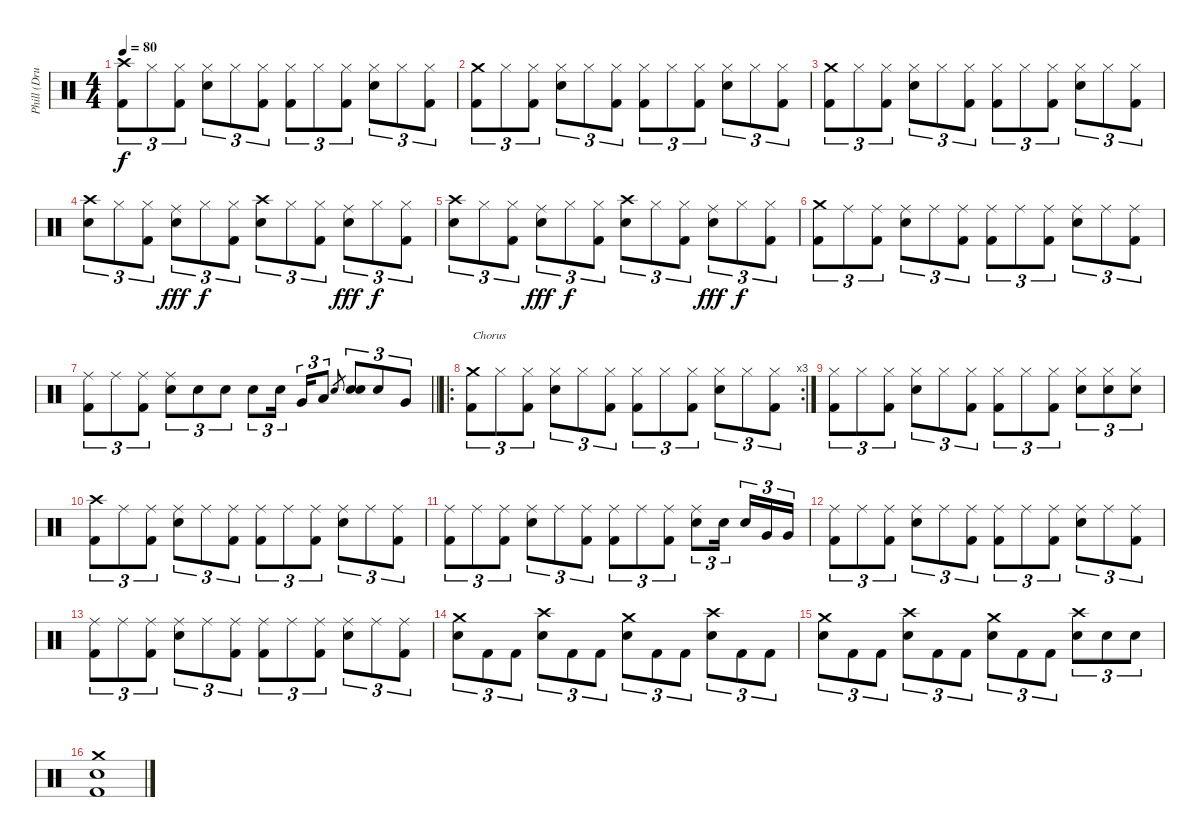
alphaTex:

\track ("Phill (Drums)" "Phill (Dru") {instrument percussion}
\staff {score}
\articulation defaults
\ts (4 4)
\tempo 80
\clef neutral
\ks c
("Kick (hit) 2" "Crash high (hit)").8{tu (3 2) dy f} "Hi-Hat (closed)".8{tu (3 2)} ("Kick (hit) 2" "Hi-Hat (closed)").8{tu (3 2)} ("Electric Snare (hit)" "Hi-Hat (closed)").8{tu (3 2)} "Hi-Hat (closed)".8{tu (3 2)} ("Kick (hit) 2" "Hi-Hat (closed)").8{tu (3 2)} ("Kick (hit) 2" "Hi-Hat (closed)").8{tu (3 2)} "Hi-Hat (closed)".8{tu (3 2)} ("Kick (hit) 2" "Hi-Hat (closed)").8{tu (3 2)} ("Electric Snare (hit)" "Hi-Hat (closed)").8{tu (3 2)} "Hi-Hat (closed)".8{tu (3 2)} ("Kick (hit) 2" "Hi-Hat (closed)").8{tu (3 2)} |
("Kick (hit) 2" "Crash medium (hit)").8{tu (3 2)} "Hi-Hat (closed)".8{tu (3 2)} ("Kick (hit) 2" "Hi-Hat (closed)").8{tu (3 2)} ("Electric Snare (hit)" "Hi-Hat (closed)").8{tu (3 2)} "Hi-Hat (closed)".8{tu (3 2)} ("Kick (hit) 2" "Hi-Hat (closed)").8{tu (3 2)} ("Kick (hit) 2" "Hi-Hat (closed)").8{tu (3 2)} "Hi-Hat (closed)".8{tu (3 2)} ("Kick (hit) 2" "Hi-Hat (closed)").8{tu (3 2)} ("Electric Snare (hit)" "Hi-Hat (closed)").8{tu (3 2)} "Hi-Hat (closed)".8{tu (3 2)} ("Kick (hit) 2" "Hi-Hat (closed)").8{tu (3 2)} |
("Kick (hit) 2" "Crash medium (hit)").8{tu (3 2)} "Hi-Hat (closed)".8{tu (3 2)} ("Kick (hit) 2" "Hi-Hat (closed)").8{tu (3 2)} ("Electric Snare (hit)" "Hi-Hat (closed)").8{tu (3 2)} "Hi-Hat (closed)".8{tu (3 2)} ("Kick (hit) 2" "Hi-Hat (closed)").8{tu (3 2)} ("Kick (hit) 2" "Hi-Hat (closed)").8{tu (3 2)} "Hi-Hat (closed)".8{tu (3 2)} ("Kick (hit) 2" "Hi-Hat (closed)").8{tu (3 2)} ("Electric Snare (hit)" "Hi-Hat (closed)").8{tu (3 2)} "Hi-Hat (closed)".8{tu (3 2)} ("Kick (hit) 2" "Hi-Hat (closed)").8{tu (3 2)} |
("Electric Snare (hit)" "Crash high (hit)").8{tu (3 2)} "Hi-Hat (closed)".8{tu (3 2)} ("Kick (hit) 2" "Hi-Hat (closed)").8{tu (3 2)} ("Electric Snare (hit)" "Ride (middle)").8{tu (3 2) dy fff} "Hi-Hat (closed)".8{tu (3 2) dy f} ("Kick (hit) 2" "Hi-Hat (closed)").8{tu (3 2)} ("Electric Snare (hit)" "Crash high (hit)").8{tu (3 2)} "Hi-Hat (closed)".8{tu (3 2)} ("Kick (hit) 2" "Hi-Hat (closed)").8{tu (3 2)} ("Electric Snare (hit)" "Ride (middle)").8{tu (3 2) dy fff} "Hi-Hat (closed)".8{tu (3 2) dy f} ("Kick (hit) 2" "Hi-Hat (closed)").8{tu (3 2)} |
("Electric Snare (hit)" "Crash high (hit)").8{tu (3 2)} "Hi-Hat (closed)".8{tu (3 2)} ("Kick (hit) 2" "Hi-Hat (closed)").8{tu (3 2)} ("Electric Snare (hit)" "Ride (middle)").8{tu (3 2) dy fff} "Hi-Hat (closed)".8{tu (3 2) dy f} ("Kick (hit) 2" "Hi-Hat (closed)").8{tu (3 2)} ("Electric Snare (hit)" "Crash high (hit)").8{tu (3 2)} "Hi-Hat (closed)".8{tu (3 2)} ("Kick (hit) 2" "Hi-Hat (closed)").8{tu (3 2)} ("Electric Snare (hit)" "Ride (middle)").8{tu (3 2) dy fff} "Hi-Hat (closed)".8{tu (3 2) dy f} ("Kick (hit) 2" "Hi-Hat (closed)").8{tu (3 2)} |
("Kick (hit) 2" "Crash medium (hit)").8{tu (3 2)} "Ride (middle)".8{tu (3 2)} ("Kick (hit) 2" "Ride (middle)").8{tu (3 2)} ("Electric Snare (hit)" "Ride (middle)").8{tu (3 2)} "Ride (middle)".8{tu (3 2)} ("Kick (hit) 2" "Ride (middle)").8{tu (3 2)} ("Kick (hit) 2" "Ride (middle)").8{tu (3 2)} "Ride (middle)".8{tu (3 2)} ("Kick (hit) 2" "Ride (middle)").8{tu (3 2)} ("Electric Snare (hit)" "Ride (middle)").8{tu (3 2)} "Ride (middle)".8{tu (3 2)} ("Kick (hit) 2" "Ride (middle)").8{tu (3 2)} |
\barLineRight lightlight
("Kick (hit) 2" "Ride (middle)").8{tu (3 2)} "Ride (middle)".8{tu (3 2)} ("Kick (hit) 2" "Ride (middle)").8{tu (3 2)} ("Electric Snare (hit)" "Ride (middle)").8{tu (3 2)} "Electric Snare (hit)".8{tu (3 2)} "Electric Snare (hit)".8{tu (3 2)} "Electric Snare (hit)".8{tu (3 2)} "Electric Snare (hit)".16{tu (3 2) beam splitsecondary} "Very Low Tom (hit)".16{tu (3 2)} "Low Floor Tom (hit)".8{tu (3 2)} "Electric Snare (hit)".8{gr} ("Electric Snare (hit)" "Electric Snare (hit)").8{tu (3 2)} "Electric Snare (hit)".8{tu (3 2)} "Very Low Tom (hit)".8{tu (3 2)} |
\ro
\rc 3
("Kick (hit) 2" "Crash medium (hit)").8{tu (3 2) txt "Chorus"} "Hi-Hat (closed)".8{tu (3 2)} ("Kick (hit) 2" "Hi-Hat (closed)").8{tu (3 2)} ("Electric Snare (hit)" "Hi-Hat (closed)").8{tu (3 2)} "Hi-Hat (closed)".8{tu (3 2)} ("Kick (hit) 2" "Hi-Hat (closed)").8{tu (3 2)} ("Kick (hit) 2" "Hi-Hat (closed)").8{tu (3 2)} "Hi-Hat (closed)".8{tu (3 2)} ("Kick (hit) 2" "Hi-Hat (closed)").8{tu (3 2)} ("Electric Snare (hit)" "Hi-Hat (closed)").8{tu (3 2)} "Hi-Hat (closed)".8{tu (3 2)} ("Kick (hit) 2" "Hi-Hat (closed)").8{tu (3 2)} |
("Kick (hit) 2" "Hi-Hat (closed)").8{tu (3 2)} "Hi-Hat (closed)".8{tu (3 2)} ("Kick (hit) 2" "Hi-Hat (closed)").8{tu (3 2)} ("Electric Snare (hit)" "Hi-Hat (closed)").8{tu (3 2)} "Hi-Hat (closed)".8{tu (3 2)} ("Kick (hit) 2" "Hi-Hat (closed)").8{tu (3 2)} ("Kick (hit) 2" "Hi-Hat (closed)").8{tu (3 2)} "Hi-Hat (closed)".8{tu (3 2)} ("Kick (hit) 2" "Hi-Hat (closed)").8{tu (3 2)} ("Electric Snare (hit)" "Hi-Hat (closed)").8{tu (3 2)} ("Electric Snare (hit)" "Hi-Hat (closed)").8{tu (3 2)} ("Electric Snare (hit)" "Hi-Hat (closed)").8{tu (3 2)} |
("Kick (hit) 2" "Crash high (hit)").8{tu (3 2)} "Ride (middle)".8{tu (3 2)} ("Kick (hit) 2" "Ride (middle)").8{tu (3 2)} ("Electric Snare (hit)" "Ride (middle)").8{tu (3 2)} "Ride (middle)".8{tu (3 2)} ("Kick (hit) 2" "Ride (middle)").8{tu (3 2)} ("Kick (hit) 2" "Ride (middle)").8{tu (3 2)} "Ride (middle)".8{tu (3 2)} ("Kick (hit) 2" "Ride (middle)").8{tu (3 2)} ("Electric Snare (hit)" "Ride (middle)").8{tu (3 2)} "Ride (middle)".8{tu (3 2)} ("Kick (hit) 2" "Ride (middle)").8{tu (3 2)} |
("Kick (hit) 2" "Ride (middle)").8{tu (3 2)} "Ride (middle)".8{tu (3 2)} ("Kick (hit) 2" "Ride (middle)").8{tu (3 2)} ("Electric Snare (hit)" "Ride (middle)").8{tu (3 2)} "Ride (middle)".8{tu (3 2)} ("Kick (hit) 2" "Ride (middle)").8{tu (3 2)} ("Kick (hit) 2" "Ride (middle)").8{tu (3 2)} "Ride (middle)".8{tu (3 2)} ("Kick (hit) 2" "Ride (middle)").8{tu (3 2)} ("Electric Snare (hit)" "Ride (middle)").8{tu (3 2)} "Electric Snare (hit)".16{tu (3 2) beam splitsecondary} "Electric Snare (hit)".16{tu (3 2)} "Very Low Tom (hit)".16{tu (3 2)} "Very Low Tom (hit)".16{tu (3 2)} |
("Kick (hit) 2" "Ride (middle)").8{tu (3 2)} "Ride (middle)".8{tu (3 2)} ("Kick (hit) 2" "Ride (middle)").8{tu (3 2)} ("Electric Snare (hit)" "Ride (middle)").8{tu (3 2)} "Ride (middle)".8{tu (3 2)} ("Kick (hit) 2" "Ride (middle)").8{tu (3 2)} ("Kick (hit) 2" "Ride (middle)").8{tu (3 2)} "Ride (middle)".8{tu (3 2)} ("Kick (hit) 2" "Ride (middle)").8{tu (3 2)} ("Electric Snare (hit)" "Ride (middle)").8{tu (3 2)} "Ride (middle)".8{tu (3 2)} ("Kick (hit) 2" "Ride (middle)").8{tu (3 2)} |
("Kick (hit) 2" "Ride (middle)").8{tu (3 2)} "Ride (middle)".8{tu (3 2)} ("Kick (hit) 2" "Ride (middle)").8{tu (3 2)} ("Electric Snare (hit)" "Ride (middle)").8{tu (3 2)} "Ride (middle)".8{tu (3 2)} ("Kick (hit) 2" "Ride (middle)").8{tu (3 2)} ("Kick (hit) 2" "Ride (middle)").8{tu (3 2)} "Ride (middle)".8{tu (3 2)} ("Kick (hit) 2" "Ride (middle)").8{tu (3 2)} ("Electric Snare (hit)" "Ride (middle)").8{tu (3 2)} "Ride (middle)".8{tu (3 2)} ("Kick (hit) 2" "Ride (middle)").8{tu (3 2)} |
("Electric Snare (hit)" "Crash medium (hit)").8{tu (3 2)} "Kick (hit) 2".8{tu (3 2)} "Kick (hit) 2".8{tu (3 2)} ("Electric Snare (hit)" "Crash high (hit)").8{tu (3 2)} "Kick (hit) 2".8{tu (3 2)} "Kick (hit) 2".8{tu (3 2)} ("Electric Snare (hit)" "Crash medium (hit)").8{tu (3 2)} "Kick (hit) 2".8{tu (3 2)} "Kick (hit) 2".8{tu (3 2)} ("Electric Snare (hit)" "Crash high (hit)").8{tu (3 2)} "Kick (hit) 2".8{tu (3 2)} "Kick (hit) 2".8{tu (3 2)} |
("Electric Snare (hit)" "Crash medium (hit)").8{tu (3 2)} "Kick (hit) 2".8{tu (3 2)} "Kick (hit) 2".8{tu (3 2)} ("Electric Snare (hit)" "Crash high (hit)").8{tu (3 2)} "Kick (hit) 2".8{tu (3 2)} "Kick (hit) 2".8{tu (3 2)} ("Electric Snare (hit)" "Crash medium (hit)").8{tu (3 2)} "Kick (hit) 2".8{tu (3 2)} "Kick (hit) 2".8{tu (3 2)} ("Electric Snare (hit)" "Crash high (hit)").8{tu (3 2)} "Electric Snare (hit)".8{tu (3 2)} "Electric Snare (hit)".8{tu (3 2)} |
("Kick (hit) 2" "Snare (hit) 2" "Crash medium (hit)").1
